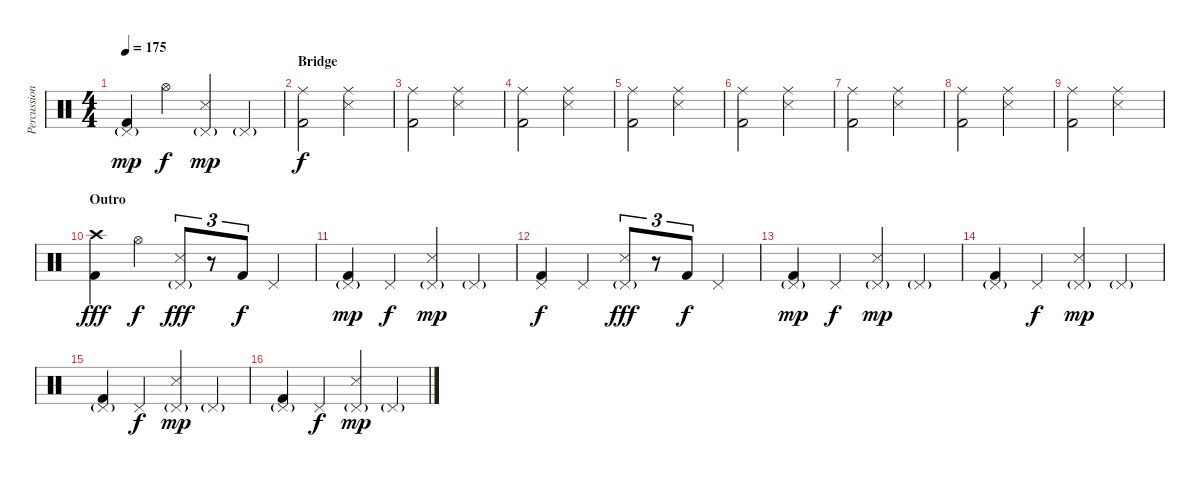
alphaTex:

\track ("Percussion" "Percussion") {instrument percussion}
\staff {score}
\articulation defaults
\ts (4 4)
\tempo 175
\clef neutral
\ks c
("Pedal Hi-Hat (hit)"{g} "Kick (hit) 2").4{dy mp} "Hi-Hat (open)".4{dy f} ("Pedal Hi-Hat (hit)"{g} "Snare (side stick) 3").4{dy mp} "Pedal Hi-Hat (hit)"{g}.4 |
\section ("" "Bridge")
("Ride (middle)" "Kick (hit) 2").2{dy f} ("Ride (middle)" "Snare (side stick) 3").2 |
("Ride (middle)" "Kick (hit) 2").2 ("Ride (middle)" "Snare (side stick) 3").2 |
("Ride (middle)" "Kick (hit) 2").2 ("Ride (middle)" "Snare (side stick) 3").2 |
("Ride (middle)" "Kick (hit) 2").2 ("Ride (middle)" "Snare (side stick) 3").2 |
("Ride (middle)" "Kick (hit) 2").2 ("Ride (middle)" "Snare (side stick) 3").2 |
("Ride (middle)" "Kick (hit) 2").2 ("Ride (middle)" "Snare (side stick) 3").2 |
("Ride (middle)" "Kick (hit) 2").2 ("Ride (middle)" "Snare (side stick) 3").2 |
("Ride (middle)" "Kick (hit) 2").2 ("Ride (middle)" "Snare (side stick) 3").2 |
\section ("" "Outro")
("Crash high (hit)" "Kick (hit) 2").4{dy fff} "Hi-Hat (open)".4{dy f} ("Pedal Hi-Hat (hit)"{g} "Snare (side stick) 3").8{tu (3 2) dy fff} r.8{tu (3 2)} "Kick (hit) 2".8{tu (3 2) dy f} "Pedal Hi-Hat (hit)".4 |
("Pedal Hi-Hat (hit)"{g} "Kick (hit) 2").4{dy mp} "Pedal Hi-Hat (hit)".4{dy f} ("Pedal Hi-Hat (hit)"{g} "Snare (side stick) 3").4{dy mp} "Pedal Hi-Hat (hit)"{g}.4 |
("Pedal Hi-Hat (hit)" "Kick (hit) 2").4{dy f} "Pedal Hi-Hat (hit)".4 ("Pedal Hi-Hat (hit)"{g} "Snare (side stick) 3").8{tu (3 2) dy fff} r.8{tu (3 2)} "Kick (hit) 2".8{tu (3 2) dy f} "Pedal Hi-Hat (hit)".4 |
("Pedal Hi-Hat (hit)"{g} "Kick (hit) 2").4{dy mp} "Pedal Hi-Hat (hit)".4{dy f} ("Pedal Hi-Hat (hit)"{g} "Snare (side stick) 3").4{dy mp} "Pedal Hi-Hat (hit)"{g}.4 |
("Pedal Hi-Hat (hit)"{g} "Kick (hit) 2").4 "Pedal Hi-Hat (hit)".4{dy f} ("Pedal Hi-Hat (hit)"{g} "Snare (side stick) 3").4{dy mp} "Pedal Hi-Hat (hit)"{g}.4 |
("Pedal Hi-Hat (hit)"{g} "Kick (hit) 2").4 "Pedal Hi-Hat (hit)".4{dy f} ("Pedal Hi-Hat (hit)"{g} "Snare (side stick) 3").4{dy mp} "Pedal Hi-Hat (hit)"{g}.4 |
("Pedal Hi-Hat (hit)"{g} "Kick (hit) 2").4 "Pedal Hi-Hat (hit)".4{dy f} ("Pedal Hi-Hat (hit)"{g} "Snare (side stick) 3").4{dy mp} "Pedal Hi-Hat (hit)"{g}.4
